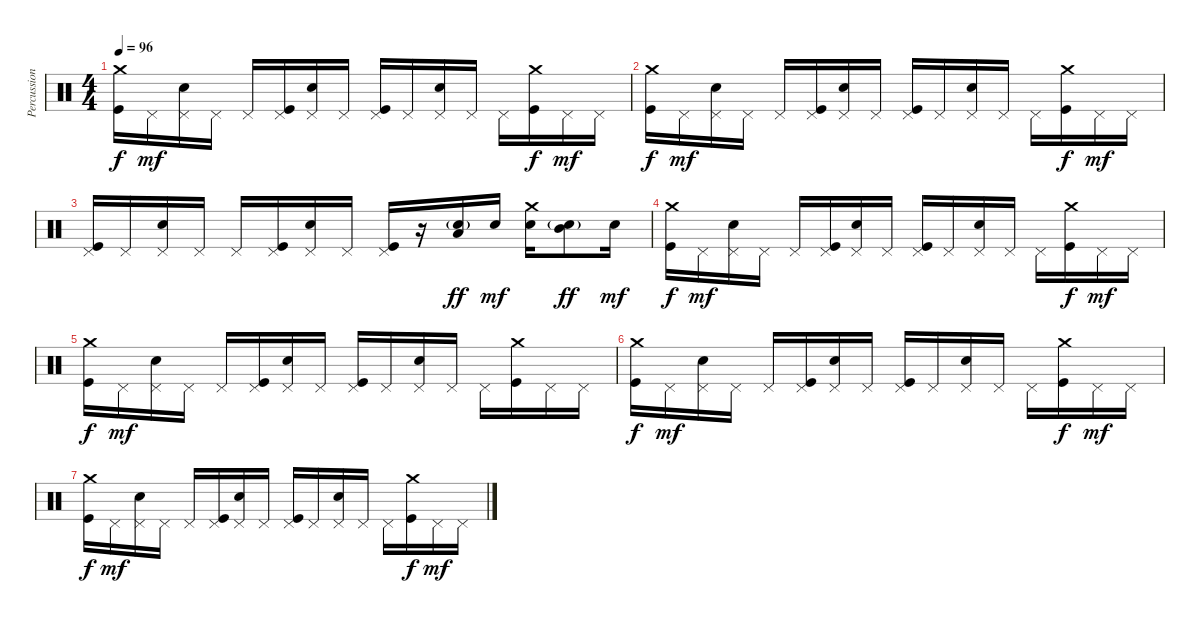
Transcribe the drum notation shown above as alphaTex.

\track ("Percussion" "Percussion") {instrument percussion}
\staff {score}
\articulation defaults
\ts (4 4)
\tempo 96
\clef neutral
\ks c
("Crash medium (hit)" "Kick (hit)").16{dy f} "Pedal Hi-Hat (hit)".16{dy mf} ("Pedal Hi-Hat (hit)" "Snare (hit) 2").16 "Pedal Hi-Hat (hit)".16 "Pedal Hi-Hat (hit)".16 ("Pedal Hi-Hat (hit)" "Kick (hit)").16 ("Pedal Hi-Hat (hit)" "Snare (hit) 2").16 "Pedal Hi-Hat (hit)".16 ("Pedal Hi-Hat (hit)" "Kick (hit)").16 "Pedal Hi-Hat (hit)".16 ("Pedal Hi-Hat (hit)" "Snare (hit) 2").16 "Pedal Hi-Hat (hit)".16 "Pedal Hi-Hat (hit)".16 ("Crash medium (hit)" "Kick (hit)").16{dy f} "Pedal Hi-Hat (hit)".16{dy mf} "Pedal Hi-Hat (hit)".16 |
("Crash medium (hit)" "Kick (hit)").16{dy f} "Pedal Hi-Hat (hit)".16{dy mf} ("Pedal Hi-Hat (hit)" "Snare (hit) 2").16 "Pedal Hi-Hat (hit)".16 "Pedal Hi-Hat (hit)".16 ("Pedal Hi-Hat (hit)" "Kick (hit)").16 ("Pedal Hi-Hat (hit)" "Snare (hit) 2").16 "Pedal Hi-Hat (hit)".16 ("Pedal Hi-Hat (hit)" "Kick (hit)").16 "Pedal Hi-Hat (hit)".16 ("Pedal Hi-Hat (hit)" "Snare (hit) 2").16 "Pedal Hi-Hat (hit)".16 "Pedal Hi-Hat (hit)".16 ("Crash medium (hit)" "Kick (hit)").16{dy f} "Pedal Hi-Hat (hit)".16{dy mf} "Pedal Hi-Hat (hit)".16 |
("Pedal Hi-Hat (hit)" "Kick (hit)").16 "Pedal Hi-Hat (hit)".16 ("Pedal Hi-Hat (hit)" "Snare (hit) 2").16 "Pedal Hi-Hat (hit)".16 "Pedal Hi-Hat (hit)".16 ("Pedal Hi-Hat (hit)" "Kick (hit)").16 ("Pedal Hi-Hat (hit)" "Snare (hit) 2").16 "Pedal Hi-Hat (hit)".16 ("Pedal Hi-Hat (hit)" "Kick (hit)").16 r.16 ("Snare (hit) 2"{g} "Low Tom (hit)").16{dy ff} "Electric Snare (hit)".16{dy mf} ("Crash medium (hit)" "Electric Snare (hit)").16 ("Snare (hit) 2"{g} "Mid Tom (hit)").8{dy ff} "Electric Snare (hit)".16{dy mf} |
("Crash medium (hit)" "Kick (hit)").16{dy f} "Pedal Hi-Hat (hit)".16{dy mf} ("Pedal Hi-Hat (hit)" "Snare (hit) 2").16 "Pedal Hi-Hat (hit)".16 "Pedal Hi-Hat (hit)".16 ("Pedal Hi-Hat (hit)" "Kick (hit)").16 ("Pedal Hi-Hat (hit)" "Snare (hit) 2").16 "Pedal Hi-Hat (hit)".16 ("Pedal Hi-Hat (hit)" "Kick (hit)").16 "Pedal Hi-Hat (hit)".16 ("Pedal Hi-Hat (hit)" "Snare (hit) 2").16 "Pedal Hi-Hat (hit)".16 "Pedal Hi-Hat (hit)".16 ("Crash medium (hit)" "Kick (hit)").16{dy f} "Pedal Hi-Hat (hit)".16{dy mf} "Pedal Hi-Hat (hit)".16 |
("Crash medium (hit)" "Kick (hit)").16{dy f} "Pedal Hi-Hat (hit)".16{dy mf} ("Pedal Hi-Hat (hit)" "Snare (hit) 2").16 "Pedal Hi-Hat (hit)".16 "Pedal Hi-Hat (hit)".16 ("Pedal Hi-Hat (hit)" "Kick (hit)").16 ("Pedal Hi-Hat (hit)" "Snare (hit) 2").16 "Pedal Hi-Hat (hit)".16 ("Pedal Hi-Hat (hit)" "Kick (hit)").16 "Pedal Hi-Hat (hit)".16 ("Pedal Hi-Hat (hit)" "Snare (hit) 2").16 "Pedal Hi-Hat (hit)".16 "Pedal Hi-Hat (hit)".16 ("Crash medium (hit)" "Kick (hit)").16 "Pedal Hi-Hat (hit)".16 "Pedal Hi-Hat (hit)".16 |
("Crash medium (hit)" "Kick (hit)").16{dy f} "Pedal Hi-Hat (hit)".16{dy mf} ("Pedal Hi-Hat (hit)" "Snare (hit) 2").16 "Pedal Hi-Hat (hit)".16 "Pedal Hi-Hat (hit)".16 ("Pedal Hi-Hat (hit)" "Kick (hit)").16 ("Pedal Hi-Hat (hit)" "Snare (hit) 2").16 "Pedal Hi-Hat (hit)".16 ("Pedal Hi-Hat (hit)" "Kick (hit)").16 "Pedal Hi-Hat (hit)".16 ("Pedal Hi-Hat (hit)" "Snare (hit) 2").16 "Pedal Hi-Hat (hit)".16 "Pedal Hi-Hat (hit)".16 ("Crash medium (hit)" "Kick (hit)").16{dy f} "Pedal Hi-Hat (hit)".16{dy mf} "Pedal Hi-Hat (hit)".16 |
("Crash medium (hit)" "Kick (hit)").16{dy f} "Pedal Hi-Hat (hit)".16{dy mf} ("Pedal Hi-Hat (hit)" "Snare (hit) 2").16 "Pedal Hi-Hat (hit)".16 "Pedal Hi-Hat (hit)".16 ("Pedal Hi-Hat (hit)" "Kick (hit)").16 ("Pedal Hi-Hat (hit)" "Snare (hit) 2").16 "Pedal Hi-Hat (hit)".16 ("Pedal Hi-Hat (hit)" "Kick (hit)").16 "Pedal Hi-Hat (hit)".16 ("Pedal Hi-Hat (hit)" "Snare (hit) 2").16 "Pedal Hi-Hat (hit)".16 "Pedal Hi-Hat (hit)".16 ("Crash medium (hit)" "Kick (hit)").16{dy f} "Pedal Hi-Hat (hit)".16{dy mf} "Pedal Hi-Hat (hit)".16
